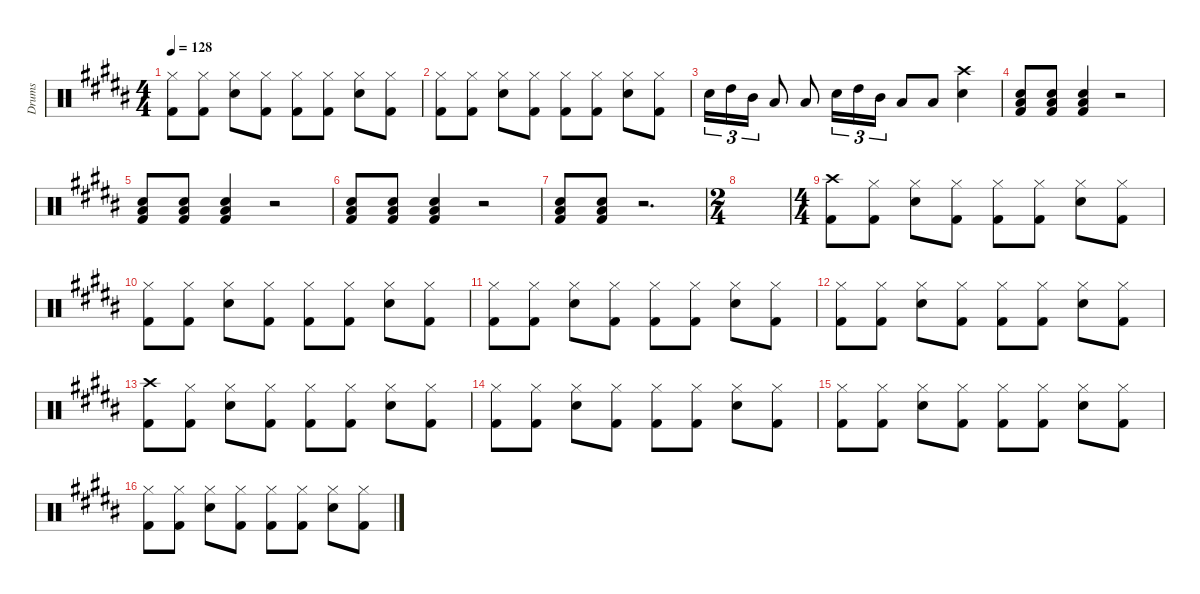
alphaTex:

\hideDynamics
\bracketExtendMode nobrackets
\otherSystemsTrackNameOrientation horizontal
\track ("Drumkit" "Drums") {instrument percussion}
\staff {score}
\articulation defaults
\ts (4 4)
\tempo 128
\clef neutral
\scale
0.333333
\ks b
("Kick (hit) 2"{acc bb} "Hi-Hat (closed)"{acc bb}).8{dy mf beam Down} ("Kick (hit) 2"{acc bb} "Hi-Hat (closed)"{acc bb}).8{beam Down} ("Snare (hit) 2"{acc bb} "Hi-Hat (closed)"{acc bb}).8{beam Down} ("Kick (hit) 2"{acc bb} "Hi-Hat (closed)"{acc bb}).8{beam Down} ("Kick (hit) 2"{acc bb} "Hi-Hat (closed)"{acc bb}).8{beam Down} ("Kick (hit) 2"{acc bb} "Hi-Hat (closed)"{acc bb}).8{beam Down} ("Snare (hit) 2"{acc bb} "Hi-Hat (closed)"{acc bb}).8{beam Down} ("Kick (hit) 2"{acc bb} "Hi-Hat (closed)"{acc bb}).8{beam Down} |
\scale
0.333333 ("Kick (hit) 2"{acc bb} "Hi-Hat (closed)"{acc bb}).8{beam Down} ("Kick (hit) 2"{acc bb} "Hi-Hat (closed)"{acc bb}).8{beam Down} ("Snare (hit) 2"{acc bb} "Hi-Hat (closed)"{acc bb}).8{beam Down} ("Kick (hit) 2"{acc bb} "Hi-Hat (closed)"{acc bb}).8{beam Down} ("Kick (hit) 2"{acc bb} "Hi-Hat (closed)"{acc bb}).8{beam Down} ("Kick (hit) 2"{acc bb} "Hi-Hat (closed)"{acc bb}).8{beam Down} ("Snare (hit) 2"{acc bb} "Hi-Hat (closed)"{acc bb}).8{beam Down} ("Kick (hit) 2"{acc bb} "Hi-Hat (closed)"{acc bb}).8{beam Down} |
\scale
0.333333 "Snare (hit) 2"{acc bb}.16{tu (3 2) beam Down} "High Tom (hit)"{acc bb}.16{tu (3 2) beam Down} "Mid Tom (hit)"{acc bb}.16{tu (3 2) beam Down} "Low Tom (hit)"{acc bb}.8{beam Up} "Low Tom (hit)"{acc bb}.8{beam Up} "Snare (hit) 2"{acc bb}.16{tu (3 2) beam Down} "High Tom (hit)"{acc bb}.16{tu (3 2) beam Down} "Mid Tom (hit)"{acc bb}.16{tu (3 2) beam Down} "Low Tom (hit)"{acc bb}.8{beam Up} "Low Tom (hit)"{acc bb}.8{beam Up} ("Snare (hit) 2"{acc bb} "Crash high (hit)"{acc bb}).4{beam Down} |
\scale
0.333333 ("Kick (hit) 2"{acc bb} "Low Tom (hit)"{acc bb} "Snare (hit) 2"{acc bb}).8{beam Up} ("Kick (hit) 2"{acc bb} "Low Tom (hit)"{acc bb} "Snare (hit) 2"{acc bb}).8{beam Up} ("Kick (hit) 2"{acc bb} "Low Tom (hit)"{acc bb} "Snare (hit) 2"{acc bb}).4{beam Up} r.2{beam Up} |
\scale
0.333333 ("Kick (hit) 2"{acc bb} "Low Tom (hit)"{acc bb} "Snare (hit) 2"{acc bb}).8{beam Up} ("Kick (hit) 2"{acc bb} "Low Tom (hit)"{acc bb} "Snare (hit) 2"{acc bb}).8{beam Up} ("Kick (hit) 2"{acc bb} "Low Tom (hit)"{acc bb} "Snare (hit) 2"{acc bb}).4{beam Up} r.2{beam Up} |
\scale
0.333333 ("Kick (hit) 2"{acc bb} "Low Tom (hit)"{acc bb} "Snare (hit) 2"{acc bb}).8{beam Up} ("Kick (hit) 2"{acc bb} "Low Tom (hit)"{acc bb} "Snare (hit) 2"{acc bb}).8{beam Up} ("Kick (hit) 2"{acc bb} "Low Tom (hit)"{acc bb} "Snare (hit) 2"{acc bb}).4{beam Up} r.2{beam Up} |
\scale
0.333333 ("Kick (hit) 2"{acc bb} "Low Tom (hit)"{acc bb} "Snare (hit) 2"{acc bb}).8{beam Up} ("Kick (hit) 2"{acc bb} "Low Tom (hit)"{acc bb} "Snare (hit) 2"{acc bb}).8{beam Up} r.2{d beam Up} |
\ts (2 4)
\scale
0.391473 |
\ts (4 4)
\scale
0.391473 ("Crash high (hit)"{acc bb} "Kick (hit) 2"{acc bb}).8{beam Down} ("Kick (hit) 2"{acc bb} "Hi-Hat (closed)"{acc bb}).8{beam Down} ("Snare (hit) 2"{acc bb} "Hi-Hat (closed)"{acc bb}).8{beam Down} ("Kick (hit) 2"{acc bb} "Hi-Hat (closed)"{acc bb}).8{beam Down} ("Kick (hit) 2"{acc bb} "Hi-Hat (closed)"{acc bb}).8{beam Down} ("Kick (hit) 2"{acc bb} "Hi-Hat (closed)"{acc bb}).8{beam Down} ("Snare (hit) 2"{acc bb} "Hi-Hat (closed)"{acc bb}).8{beam Down} ("Kick (hit) 2"{acc bb} "Hi-Hat (closed)"{acc bb}).8{beam Down} |
\scale
0.217054 ("Kick (hit) 2"{acc bb} "Hi-Hat (closed)"{acc bb}).8{beam Down} ("Kick (hit) 2"{acc bb} "Hi-Hat (closed)"{acc bb}).8{beam Down} ("Snare (hit) 2"{acc bb} "Hi-Hat (closed)"{acc bb}).8{beam Down} ("Kick (hit) 2"{acc bb} "Hi-Hat (closed)"{acc bb}).8{beam Down} ("Kick (hit) 2"{acc bb} "Hi-Hat (closed)"{acc bb}).8{beam Down} ("Kick (hit) 2"{acc bb} "Hi-Hat (closed)"{acc bb}).8{beam Down} ("Snare (hit) 2"{acc bb} "Hi-Hat (closed)"{acc bb}).8{beam Down} ("Kick (hit) 2"{acc bb} "Hi-Hat (closed)"{acc bb}).8{beam Down} |
\scale
0.333333 ("Kick (hit) 2"{acc bb} "Hi-Hat (closed)"{acc bb}).8{beam Down} ("Kick (hit) 2"{acc bb} "Hi-Hat (closed)"{acc bb}).8{beam Down} ("Snare (hit) 2"{acc bb} "Hi-Hat (closed)"{acc bb}).8{beam Down} ("Kick (hit) 2"{acc bb} "Hi-Hat (closed)"{acc bb}).8{beam Down} ("Kick (hit) 2"{acc bb} "Hi-Hat (closed)"{acc bb}).8{beam Down} ("Kick (hit) 2"{acc bb} "Hi-Hat (closed)"{acc bb}).8{beam Down} ("Snare (hit) 2"{acc bb} "Hi-Hat (closed)"{acc bb}).8{beam Down} ("Kick (hit) 2"{acc bb} "Hi-Hat (closed)"{acc bb}).8{beam Down} |
\scale
0.333333 ("Kick (hit) 2"{acc bb} "Hi-Hat (closed)"{acc bb}).8{beam Down} ("Kick (hit) 2"{acc bb} "Hi-Hat (closed)"{acc bb}).8{beam Down} ("Snare (hit) 2"{acc bb} "Hi-Hat (closed)"{acc bb}).8{beam Down} ("Kick (hit) 2"{acc bb} "Hi-Hat (closed)"{acc bb}).8{beam Down} ("Kick (hit) 2"{acc bb} "Hi-Hat (closed)"{acc bb}).8{beam Down} ("Kick (hit) 2"{acc bb} "Hi-Hat (closed)"{acc bb}).8{beam Down} ("Snare (hit) 2"{acc bb} "Hi-Hat (closed)"{acc bb}).8{beam Down} ("Kick (hit) 2"{acc bb} "Hi-Hat (closed)"{acc bb}).8{beam Down} |
\scale
0.333333 ("Crash high (hit)"{acc bb} "Kick (hit) 2"{acc bb}).8{beam Down} ("Kick (hit) 2"{acc bb} "Hi-Hat (closed)"{acc bb}).8{beam Down} ("Snare (hit) 2"{acc bb} "Hi-Hat (closed)"{acc bb}).8{beam Down} ("Kick (hit) 2"{acc bb} "Hi-Hat (closed)"{acc bb}).8{beam Down} ("Kick (hit) 2"{acc bb} "Hi-Hat (closed)"{acc bb}).8{beam Down} ("Kick (hit) 2"{acc bb} "Hi-Hat (closed)"{acc bb}).8{beam Down} ("Snare (hit) 2"{acc bb} "Hi-Hat (closed)"{acc bb}).8{beam Down} ("Kick (hit) 2"{acc bb} "Hi-Hat (closed)"{acc bb}).8{beam Down} |
\scale
0.333333 ("Kick (hit) 2"{acc bb} "Hi-Hat (closed)"{acc bb}).8{beam Down} ("Kick (hit) 2"{acc bb} "Hi-Hat (closed)"{acc bb}).8{beam Down} ("Snare (hit) 2"{acc bb} "Hi-Hat (closed)"{acc bb}).8{beam Down} ("Kick (hit) 2"{acc bb} "Hi-Hat (closed)"{acc bb}).8{beam Down} ("Kick (hit) 2"{acc bb} "Hi-Hat (closed)"{acc bb}).8{beam Down} ("Kick (hit) 2"{acc bb} "Hi-Hat (closed)"{acc bb}).8{beam Down} ("Snare (hit) 2"{acc bb} "Hi-Hat (closed)"{acc bb}).8{beam Down} ("Kick (hit) 2"{acc bb} "Hi-Hat (closed)"{acc bb}).8{beam Down} |
\scale
0.333333 ("Kick (hit) 2"{acc bb} "Hi-Hat (closed)"{acc bb}).8{beam Down} ("Kick (hit) 2"{acc bb} "Hi-Hat (closed)"{acc bb}).8{beam Down} ("Snare (hit) 2"{acc bb} "Hi-Hat (closed)"{acc bb}).8{beam Down} ("Kick (hit) 2"{acc bb} "Hi-Hat (closed)"{acc bb}).8{beam Down} ("Kick (hit) 2"{acc bb} "Hi-Hat (closed)"{acc bb}).8{beam Down} ("Kick (hit) 2"{acc bb} "Hi-Hat (closed)"{acc bb}).8{beam Down} ("Snare (hit) 2"{acc bb} "Hi-Hat (closed)"{acc bb}).8{beam Down} ("Kick (hit) 2"{acc bb} "Hi-Hat (closed)"{acc bb}).8{beam Down} |
\scale
0.333333 ("Kick (hit) 2"{acc bb} "Hi-Hat (closed)"{acc bb}).8{beam Down} ("Kick (hit) 2"{acc bb} "Hi-Hat (closed)"{acc bb}).8{beam Down} ("Snare (hit) 2"{acc bb} "Hi-Hat (closed)"{acc bb}).8{beam Down} ("Kick (hit) 2"{acc bb} "Hi-Hat (closed)"{acc bb}).8{beam Down} ("Kick (hit) 2"{acc bb} "Hi-Hat (closed)"{acc bb}).8{beam Down} ("Kick (hit) 2"{acc bb} "Hi-Hat (closed)"{acc bb}).8{beam Down} ("Snare (hit) 2"{acc bb} "Hi-Hat (closed)"{acc bb}).8{beam Down} ("Kick (hit) 2"{acc bb} "Hi-Hat (closed)"{acc bb}).8{beam Down}
